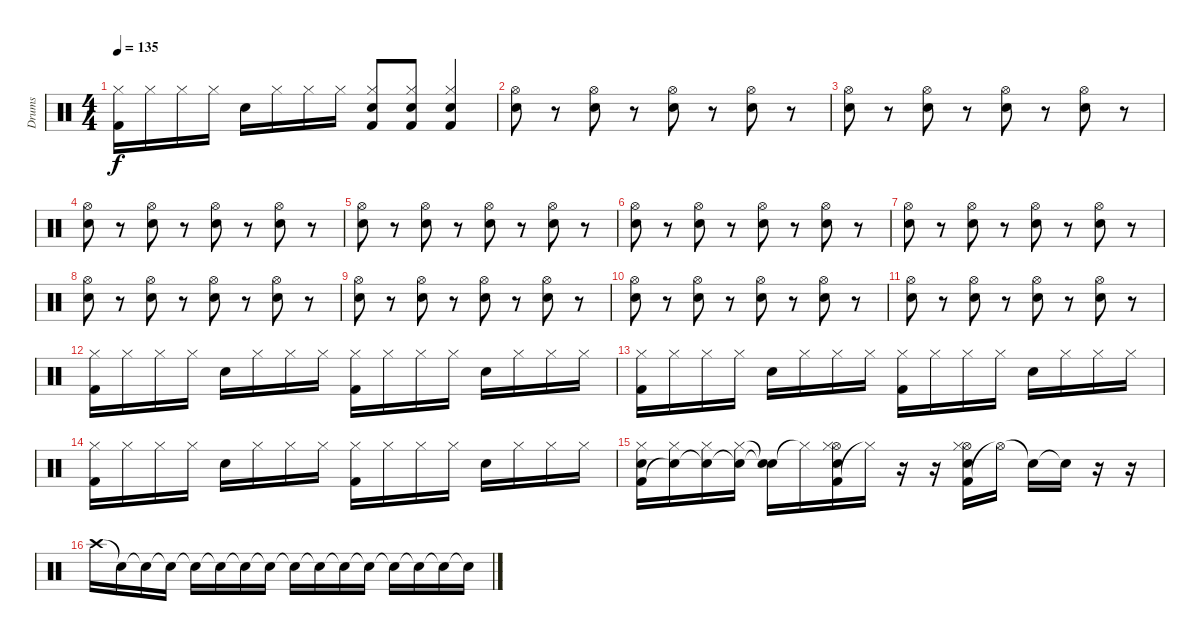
\track ("Drums" "Drums") {instrument percussion}
\staff {score}
\articulation defaults
\ts (4 4)
\tempo 135
\clef neutral
\ks c
("Kick (hit) 2" "Hi-Hat (closed)").16{dy f} "Hi-Hat (closed)".16 "Hi-Hat (closed)".16 "Hi-Hat (closed)".16 "Electric Snare (hit)".16 "Hi-Hat (closed)".16 "Hi-Hat (closed)".16 "Hi-Hat (closed)".16 ("Electric Snare (hit)" "Kick (hit) 2" "Hi-Hat (closed)").8 ("Electric Snare (hit)" "Kick (hit) 2" "Hi-Hat (closed)").8 ("Electric Snare (hit)" "Kick (hit) 2" "Hi-Hat (closed)").4 |
("Snare (hit) 2" "Hi-Hat (open)").8{volume 12} r.8 ("Snare (hit) 2" "Hi-Hat (open)").8{volume 12} r.8 ("Snare (hit) 2" "Hi-Hat (open)").8{volume 12} r.8 ("Snare (hit) 2" "Hi-Hat (open)").8{volume 12} r.8 |
("Snare (hit) 2" "Hi-Hat (open)").8{volume 12} r.8 ("Snare (hit) 2" "Hi-Hat (open)").8{volume 12} r.8 ("Snare (hit) 2" "Hi-Hat (open)").8{volume 12} r.8 ("Snare (hit) 2" "Hi-Hat (open)").8{volume 12} r.8 |
("Snare (hit) 2" "Hi-Hat (open)").8{volume 12} r.8 ("Snare (hit) 2" "Hi-Hat (open)").8{volume 12} r.8 ("Snare (hit) 2" "Hi-Hat (open)").8{volume 12} r.8 ("Snare (hit) 2" "Hi-Hat (open)").8{volume 12} r.8 |
("Snare (hit) 2" "Hi-Hat (open)").8{volume 12} r.8 ("Snare (hit) 2" "Hi-Hat (open)").8{volume 12} r.8 ("Snare (hit) 2" "Hi-Hat (open)").8{volume 12} r.8 ("Snare (hit) 2" "Hi-Hat (open)").8{volume 12} r.8 |
("Snare (hit) 2" "Hi-Hat (open)").8{volume 12} r.8 ("Snare (hit) 2" "Hi-Hat (open)").8{volume 12} r.8 ("Snare (hit) 2" "Hi-Hat (open)").8{volume 12} r.8 ("Snare (hit) 2" "Hi-Hat (open)").8{volume 12} r.8 |
("Snare (hit) 2" "Hi-Hat (open)").8{volume 12} r.8 ("Snare (hit) 2" "Hi-Hat (open)").8{volume 12} r.8 ("Snare (hit) 2" "Hi-Hat (open)").8{volume 12} r.8 ("Snare (hit) 2" "Hi-Hat (open)").8{volume 12} r.8 |
("Snare (hit) 2" "Hi-Hat (open)").8{volume 12} r.8 ("Snare (hit) 2" "Hi-Hat (open)").8{volume 12} r.8 ("Snare (hit) 2" "Hi-Hat (open)").8{volume 12} r.8 ("Snare (hit) 2" "Hi-Hat (open)").8{volume 12} r.8 |
("Snare (hit) 2" "Hi-Hat (open)").8{volume 12} r.8 ("Snare (hit) 2" "Hi-Hat (open)").8{volume 12} r.8 ("Snare (hit) 2" "Hi-Hat (open)").8{volume 12} r.8 ("Snare (hit) 2" "Hi-Hat (open)").8{volume 12} r.8 |
("Snare (hit) 2" "Hi-Hat (open)").8{volume 12} r.8 ("Snare (hit) 2" "Hi-Hat (open)").8{volume 12} r.8 ("Snare (hit) 2" "Hi-Hat (open)").8{volume 12} r.8 ("Snare (hit) 2" "Hi-Hat (open)").8{volume 12} r.8 |
("Snare (hit) 2" "Hi-Hat (open)").8{volume 12} r.8 ("Snare (hit) 2" "Hi-Hat (open)").8{volume 12} r.8 ("Snare (hit) 2" "Hi-Hat (open)").8{volume 12} r.8 ("Snare (hit) 2" "Hi-Hat (open)").8{volume 12} r.8 |
("Kick (hit) 2" "Hi-Hat (closed)").16{volume 12 balance 8} "Hi-Hat (closed)".16 "Hi-Hat (closed)".16 "Hi-Hat (closed)".16 "Electric Snare (hit)".16 "Hi-Hat (closed)".16 "Hi-Hat (closed)".16 "Hi-Hat (closed)".16 ("Kick (hit) 2" "Hi-Hat (closed)").16 "Hi-Hat (closed)".16 "Hi-Hat (closed)".16 "Hi-Hat (closed)".16 "Electric Snare (hit)".16 "Hi-Hat (closed)".16 "Hi-Hat (closed)".16 "Hi-Hat (closed)".16 |
("Kick (hit) 2" "Hi-Hat (closed)").16 "Hi-Hat (closed)".16 "Hi-Hat (closed)".16 "Hi-Hat (closed)".16 "Electric Snare (hit)".16 "Hi-Hat (closed)".16 "Hi-Hat (closed)".16 "Hi-Hat (closed)".16 ("Kick (hit) 2" "Hi-Hat (closed)").16 "Hi-Hat (closed)".16 "Hi-Hat (closed)".16 "Hi-Hat (closed)".16 "Electric Snare (hit)".16 "Hi-Hat (closed)".16 "Hi-Hat (closed)".16 "Hi-Hat (closed)".16 |
("Kick (hit) 2" "Hi-Hat (closed)").16 "Hi-Hat (closed)".16 "Hi-Hat (closed)".16 "Hi-Hat (closed)".16 "Electric Snare (hit)".16 "Hi-Hat (closed)".16 "Hi-Hat (closed)".16 "Hi-Hat (closed)".16 ("Kick (hit) 2" "Hi-Hat (closed)").16 "Hi-Hat (closed)".16 "Hi-Hat (closed)".16 "Hi-Hat (closed)".16 "Electric Snare (hit)".16 "Hi-Hat (closed)".16 "Hi-Hat (closed)".16 "Hi-Hat (closed)".16 |
("Kick (hit) 2" "Electric Snare (hit)" "Hi-Hat (closed)").16 ("Snare (hit)"{t} "Hi-Hat (closed)").16 ("Snare (hit)"{t} "Hi-Hat (closed)").16 ("Snare (hit)"{t} "Hi-Hat (closed)").16 ("Electric Snare (hit)"{t} "Snare (hit)"{t}).16 "Hi-Hat (closed)"{t}.16 ("Kick (hit) 2" "Electric Snare (hit)" "Hi-Hat (open)" "Hi-Hat (closed)").16 "Hi-Hat (closed)"{t}.16 r.16 r.16 ("Kick (hit) 2" "Electric Snare (hit)" "Hi-Hat (open)" "Hi-Hat (closed)").16 "Hi-Hat (open)"{t}.16 "Snare (hit)"{t}.16 "Snare (hit)"{t}.16 r.16 r.16 |
"Crash high (hit)".16 "Snare (hit)"{t}.16 "Snare (hit)"{t}.16 "Snare (hit)"{t}.16 "Snare (hit)"{t}.16 "Snare (hit)"{t}.16 "Snare (hit)"{t}.16 "Snare (hit)"{t}.16 "Snare (hit)"{t}.16 "Snare (hit)"{t}.16 "Snare (hit)"{t}.16 "Snare (hit)"{t}.16 "Snare (hit)"{t}.16 "Snare (hit)"{t}.16 "Snare (hit)"{t}.16 "Snare (hit)"{t}.16
